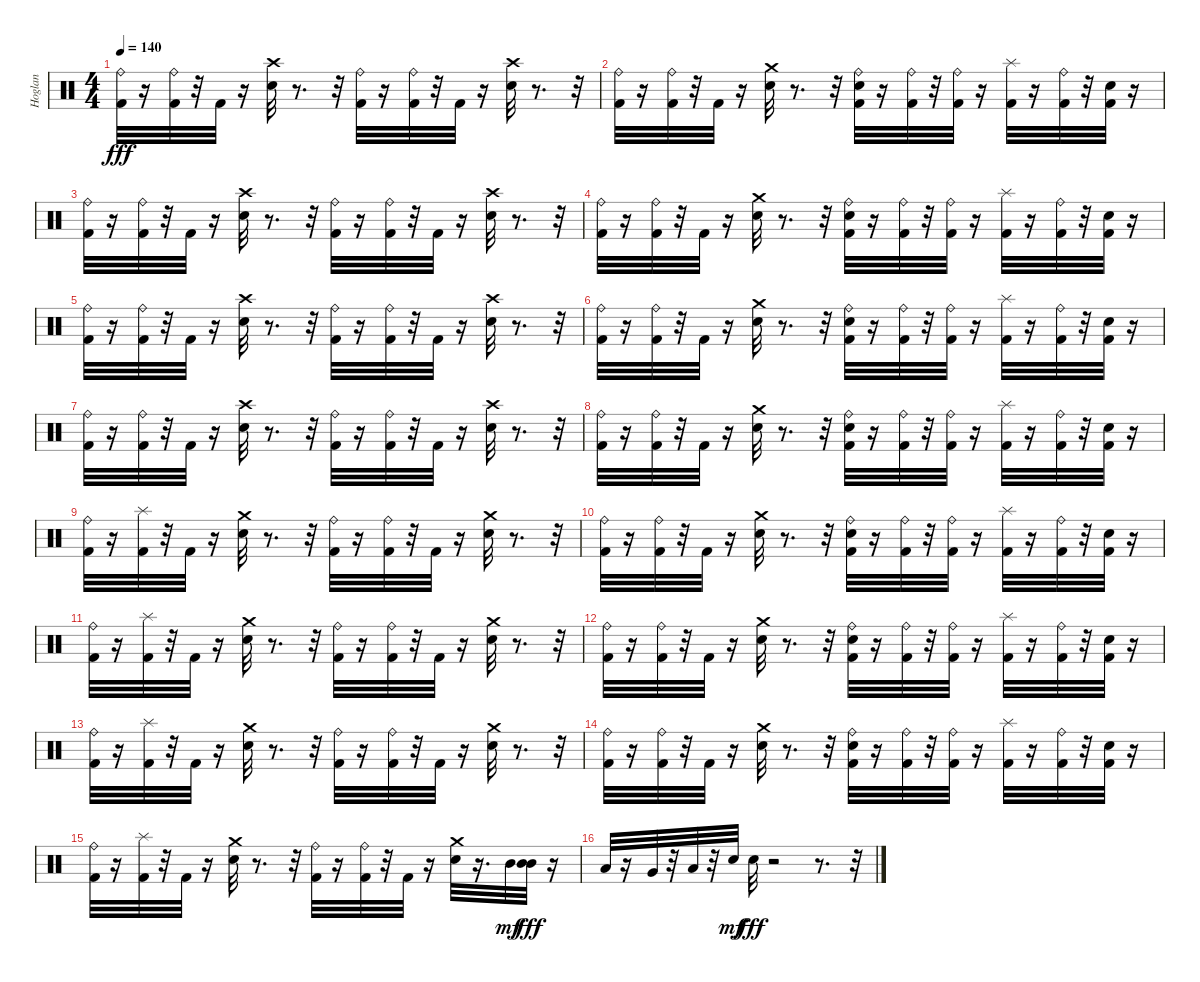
\track ("Hoglan" "Hoglan") {instrument percussion}
\staff {score}
\articulation defaults
\ts (4 4)
\tempo 140
\clef neutral
\ks c
("Ride (bell)" "Kick (hit) 2").32{dy fff} r.16 ("Ride (bell)" "Kick (hit) 2").32 r.32 "Kick (hit) 2".32 r.16 ("Crash high (hit)" "Electric Snare (hit)").32 r.8{d} r.32 ("Ride (bell)" "Kick (hit) 2").32 r.16 ("Ride (bell)" "Kick (hit) 2").32 r.32 "Kick (hit) 2".32 r.16 ("Crash high (hit)" "Electric Snare (hit)").32 r.8{d} r.32 |
("Ride (bell)" "Kick (hit) 2").32 r.16 ("Ride (bell)" "Kick (hit) 2").32 r.32 "Kick (hit) 2".32 r.16 ("Crash medium (hit)" "Electric Snare (hit)").32 r.8{d} r.32 ("Ride (bell)" "Electric Snare (hit)" "Kick (hit) 2").32 r.16 ("Ride (bell)" "Kick (hit) 2").32 r.32 ("Ride (bell)" "Kick (hit) 2").32 r.16 ("Splash (hit)" "Kick (hit) 2").32 r.16 ("Ride (bell)" "Kick (hit) 2").32 r.32 ("Electric Snare (hit)" "Kick (hit) 2").32 r.16 |
("Ride (bell)" "Kick (hit) 2").32 r.16 ("Ride (bell)" "Kick (hit) 2").32 r.32 "Kick (hit) 2".32 r.16 ("Crash high (hit)" "Electric Snare (hit)").32 r.8{d} r.32 ("Ride (bell)" "Kick (hit) 2").32 r.16 ("Ride (bell)" "Kick (hit) 2").32 r.32 "Kick (hit) 2".32 r.16 ("Crash high (hit)" "Electric Snare (hit)").32 r.8{d} r.32 |
("Ride (bell)" "Kick (hit) 2").32 r.16 ("Ride (bell)" "Kick (hit) 2").32 r.32 "Kick (hit) 2".32 r.16 ("Crash medium (hit)" "Electric Snare (hit)").32 r.8{d} r.32 ("Ride (bell)" "Electric Snare (hit)" "Kick (hit) 2").32 r.16 ("Ride (bell)" "Kick (hit) 2").32 r.32 ("Ride (bell)" "Kick (hit) 2").32 r.16 ("Splash (hit)" "Kick (hit) 2").32 r.16 ("Ride (bell)" "Kick (hit) 2").32 r.32 ("Electric Snare (hit)" "Kick (hit) 2").32 r.16 |
("Ride (bell)" "Kick (hit) 2").32 r.16 ("Ride (bell)" "Kick (hit) 2").32 r.32 "Kick (hit) 2".32 r.16 ("Crash high (hit)" "Electric Snare (hit)").32 r.8{d} r.32 ("Ride (bell)" "Kick (hit) 2").32 r.16 ("Ride (bell)" "Kick (hit) 2").32 r.32 "Kick (hit) 2".32 r.16 ("Crash high (hit)" "Electric Snare (hit)").32 r.8{d} r.32 |
("Ride (bell)" "Kick (hit) 2").32 r.16 ("Ride (bell)" "Kick (hit) 2").32 r.32 "Kick (hit) 2".32 r.16 ("Crash medium (hit)" "Electric Snare (hit)").32 r.8{d} r.32 ("Ride (bell)" "Electric Snare (hit)" "Kick (hit) 2").32 r.16 ("Ride (bell)" "Kick (hit) 2").32 r.32 ("Ride (bell)" "Kick (hit) 2").32 r.16 ("Splash (hit)" "Kick (hit) 2").32 r.16 ("Ride (bell)" "Kick (hit) 2").32 r.32 ("Electric Snare (hit)" "Kick (hit) 2").32 r.16 |
("Ride (bell)" "Kick (hit) 2").32 r.16 ("Ride (bell)" "Kick (hit) 2").32 r.32 "Kick (hit) 2".32 r.16 ("Crash high (hit)" "Electric Snare (hit)").32 r.8{d} r.32 ("Ride (bell)" "Kick (hit) 2").32 r.16 ("Ride (bell)" "Kick (hit) 2").32 r.32 "Kick (hit) 2".32 r.16 ("Crash high (hit)" "Electric Snare (hit)").32 r.8{d} r.32 |
("Ride (bell)" "Kick (hit) 2").32 r.16 ("Ride (bell)" "Kick (hit) 2").32 r.32 "Kick (hit) 2".32 r.16 ("Crash medium (hit)" "Electric Snare (hit)").32 r.8{d} r.32 ("Ride (bell)" "Electric Snare (hit)" "Kick (hit) 2").32 r.16 ("Ride (bell)" "Kick (hit) 2").32 r.32 ("Ride (bell)" "Kick (hit) 2").32 r.16 ("Splash (hit)" "Kick (hit) 2").32 r.16 ("Ride (bell)" "Kick (hit) 2").32 r.32 ("Electric Snare (hit)" "Kick (hit) 2").32 r.16 |
("Ride (bell)" "Kick (hit) 2").32 r.16 ("Splash (hit)" "Kick (hit) 2").32 r.32 "Kick (hit) 2".32 r.16 ("Crash medium (hit)" "Electric Snare (hit)").32 r.8{d} r.32 ("Ride (bell)" "Kick (hit) 2").32 r.16 ("Ride (bell)" "Kick (hit) 2").32 r.32 "Kick (hit) 2".32 r.16 ("Crash medium (hit)" "Electric Snare (hit)").32 r.8{d} r.32 |
("Ride (bell)" "Kick (hit) 2").32 r.16 ("Ride (bell)" "Kick (hit) 2").32 r.32 "Kick (hit) 2".32 r.16 ("Crash medium (hit)" "Electric Snare (hit)").32 r.8{d} r.32 ("Ride (bell)" "Electric Snare (hit)" "Kick (hit) 2").32 r.16 ("Ride (bell)" "Kick (hit) 2").32 r.32 ("Ride (bell)" "Kick (hit) 2").32 r.16 ("Splash (hit)" "Kick (hit) 2").32 r.16 ("Ride (bell)" "Kick (hit) 2").32 r.32 ("Electric Snare (hit)" "Kick (hit) 2").32 r.16 |
("Ride (bell)" "Kick (hit) 2").32 r.16 ("Splash (hit)" "Kick (hit) 2").32 r.32 "Kick (hit) 2".32 r.16 ("Crash medium (hit)" "Electric Snare (hit)").32 r.8{d} r.32 ("Ride (bell)" "Kick (hit) 2").32 r.16 ("Ride (bell)" "Kick (hit) 2").32 r.32 "Kick (hit) 2".32 r.16 ("Crash medium (hit)" "Electric Snare (hit)").32 r.8{d} r.32 |
("Ride (bell)" "Kick (hit) 2").32 r.16 ("Ride (bell)" "Kick (hit) 2").32 r.32 "Kick (hit) 2".32 r.16 ("Crash medium (hit)" "Electric Snare (hit)").32 r.8{d} r.32 ("Ride (bell)" "Electric Snare (hit)" "Kick (hit) 2").32 r.16 ("Ride (bell)" "Kick (hit) 2").32 r.32 ("Ride (bell)" "Kick (hit) 2").32 r.16 ("Splash (hit)" "Kick (hit) 2").32 r.16 ("Ride (bell)" "Kick (hit) 2").32 r.32 ("Electric Snare (hit)" "Kick (hit) 2").32 r.16 |
("Ride (bell)" "Kick (hit) 2").32 r.16 ("Splash (hit)" "Kick (hit) 2").32 r.32 "Kick (hit) 2".32 r.16 ("Crash medium (hit)" "Electric Snare (hit)").32 r.8{d} r.32 ("Ride (bell)" "Kick (hit) 2").32 r.16 ("Ride (bell)" "Kick (hit) 2").32 r.32 "Kick (hit) 2".32 r.16 ("Crash medium (hit)" "Electric Snare (hit)").32 r.8{d} r.32 |
("Ride (bell)" "Kick (hit) 2").32 r.16 ("Ride (bell)" "Kick (hit) 2").32 r.32 "Kick (hit) 2".32 r.16 ("Crash medium (hit)" "Electric Snare (hit)").32 r.8{d} r.32 ("Ride (bell)" "Electric Snare (hit)" "Kick (hit) 2").32 r.16 ("Ride (bell)" "Kick (hit) 2").32 r.32 ("Ride (bell)" "Kick (hit) 2").32 r.16 ("Splash (hit)" "Kick (hit) 2").32 r.16 ("Ride (bell)" "Kick (hit) 2").32 r.32 ("Electric Snare (hit)" "Kick (hit) 2").32 r.16 |
("Ride (bell)" "Kick (hit) 2").32 r.16 ("Splash (hit)" "Kick (hit) 2").32 r.32 "Kick (hit) 2".32 r.16 ("Crash medium (hit)" "Electric Snare (hit)").32 r.8{d} r.32 ("Ride (bell)" "Kick (hit) 2").32 r.16 ("Ride (bell)" "Kick (hit) 2").32 r.32 "Kick (hit) 2".32 r.16 ("Crash medium (hit)" "Electric Snare (hit)").32 r.16{d} "Mid Tom (hit)".32{dy mf} ("Mid Tom (hit)" "Mid Tom (hit)").32{dy fff} r.16 |
"Low Tom (hit)".32 r.16 "Very Low Tom (hit)".32 r.32 "Low Floor Tom (hit)".32 r.32 "Electric Snare (hit)".32{dy mf} "Electric Snare (hit)".32{dy fff} r.2 r.8{d} r.32
